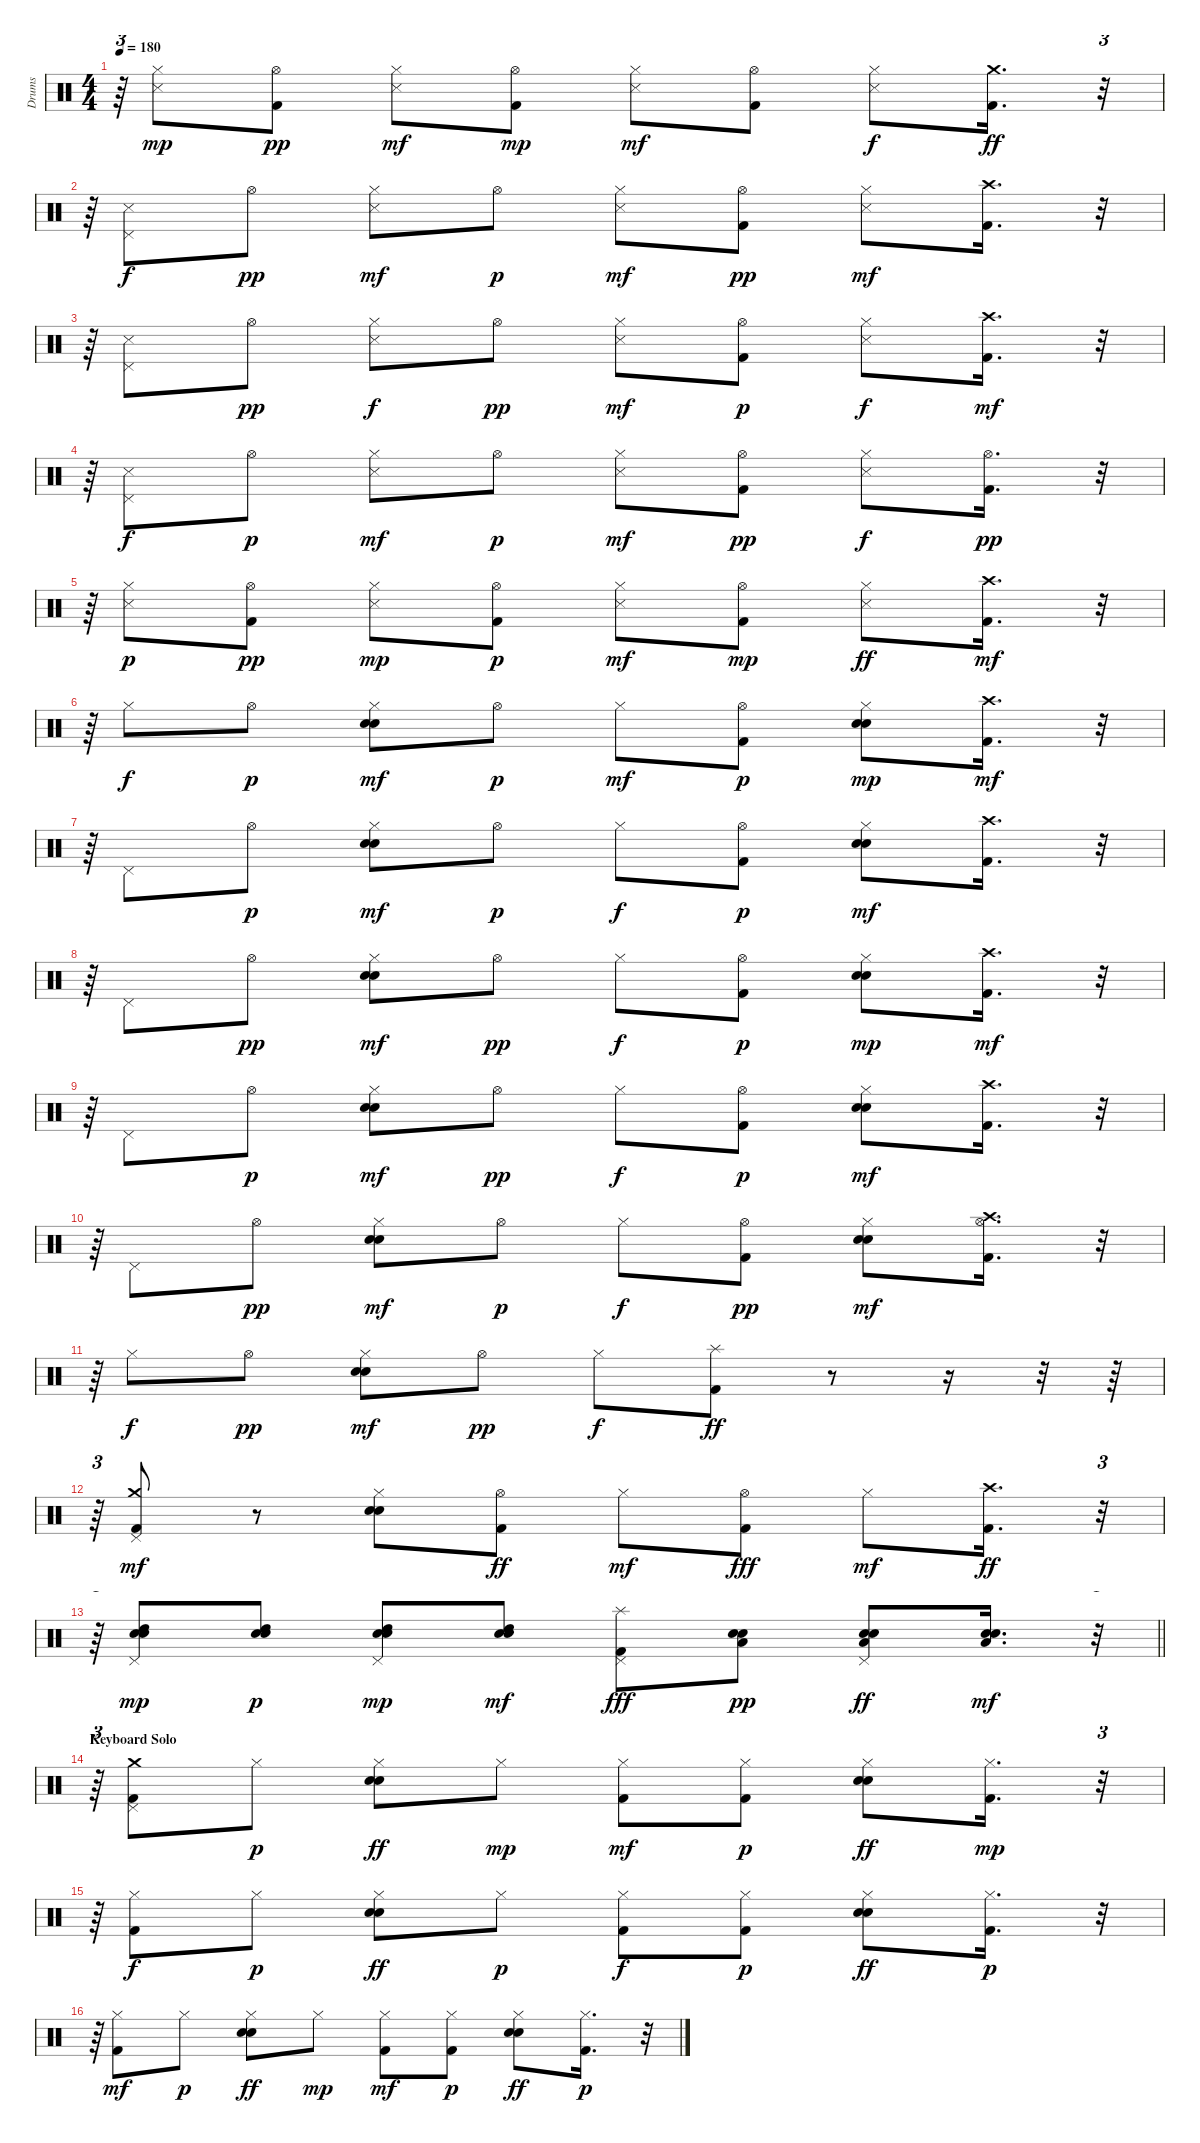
\track ("Drums" "Drums") {instrument percussion}
\staff {score}
\articulation defaults
\ts (4 4)
\tempo 180
\clef neutral
\ks c
r.64{tu (3 2) dy pp} ("Hi-Hat (closed)" "Snare (side stick) 3").8{dy mp} ("Kick (hit) 2" "Hi-Hat (open)").8{dy pp} ("Hi-Hat (closed)" "Snare (side stick) 3").8{dy mf} ("Kick (hit) 2" "Hi-Hat (open)").8{dy mp} ("Hi-Hat (closed)" "Snare (side stick) 3").8{dy mf} ("Kick (hit) 2" "Hi-Hat (open)").8 ("Hi-Hat (closed)" "Snare (side stick) 3").8{dy f} ("Kick (hit) 2" "Crash medium (hit)").16{d dy ff} r.32{tu (3 2)} |
r.64{tu (3 2)} ("Pedal Hi-Hat (hit)" "Snare (side stick) 3").8{dy f} "Hi-Hat (open)".8{dy pp} ("Hi-Hat (closed)" "Snare (side stick) 3").8{dy mf} "Hi-Hat (open)".8{dy p} ("Hi-Hat (closed)" "Snare (side stick) 3").8{dy mf} ("Kick (hit) 2" "Hi-Hat (open)").8{dy pp} ("Hi-Hat (closed)" "Snare (side stick) 3").8{dy mf} ("Kick (hit) 2" "Crash high (hit)").16{d} r.32{tu (3 2)} |
r.64{tu (3 2)} ("Pedal Hi-Hat (hit)" "Snare (side stick) 3").8 "Hi-Hat (open)".8{dy pp} ("Hi-Hat (closed)" "Snare (side stick) 3").8{dy f} "Hi-Hat (open)".8{dy pp} ("Hi-Hat (closed)" "Snare (side stick) 3").8{dy mf} ("Kick (hit) 2" "Hi-Hat (open)").8{dy p} ("Hi-Hat (closed)" "Snare (side stick) 3").8{dy f} ("Kick (hit) 2" "Crash high (hit)").16{d dy mf} r.32{tu (3 2)} |
r.64{tu (3 2)} ("Snare (side stick) 3" "Pedal Hi-Hat (hit)").8{dy f} "Hi-Hat (open)".8{dy p} ("Snare (side stick) 3" "Hi-Hat (closed)").8{dy mf} "Hi-Hat (open)".8{dy p} ("Snare (side stick) 3" "Hi-Hat (closed)").8{dy mf} ("Kick (hit) 2" "Hi-Hat (open)").8{dy pp} ("Snare (side stick) 3" "Hi-Hat (closed)").8{dy f} ("Kick (hit) 2" "Hi-Hat (open)").16{d dy pp} r.32{tu (3 2)} |
r.64{tu (3 2)} ("Snare (side stick) 3" "Hi-Hat (closed)").8{dy p} ("Kick (hit) 2" "Hi-Hat (open)").8{dy pp} ("Snare (side stick) 3" "Hi-Hat (closed)").8{dy mp} ("Kick (hit) 2" "Hi-Hat (open)").8{dy p} ("Snare (side stick) 3" "Hi-Hat (closed)").8{dy mf} ("Kick (hit) 2" "Hi-Hat (open)").8{dy mp} ("Snare (side stick) 3" "Hi-Hat (closed)").8{dy ff} ("Kick (hit) 2" "Crash high (hit)").16{d dy mf} r.32{tu (3 2)} |
r.64{tu (3 2)} "Hi-Hat (closed)".8{dy f} "Hi-Hat (open)".8{dy p} ("Electric Snare (hit)" "Snare (hit) 2" "Hi-Hat (closed)").8{dy mf} "Hi-Hat (open)".8{dy p} "Hi-Hat (closed)".8{dy mf} ("Kick (hit) 2" "Hi-Hat (open)").8{dy p} ("Electric Snare (hit)" "Snare (hit) 2" "Hi-Hat (closed)").8{dy mp} ("Kick (hit) 2" "Crash high (hit)").16{d dy mf} r.32{tu (3 2)} |
r.64{tu (3 2)} "Pedal Hi-Hat (hit)".8 "Hi-Hat (open)".8{dy p} ("Electric Snare (hit)" "Snare (hit) 2" "Hi-Hat (closed)").8{dy mf} "Hi-Hat (open)".8{dy p} "Hi-Hat (closed)".8{dy f} ("Kick (hit) 2" "Hi-Hat (open)").8{dy p} ("Electric Snare (hit)" "Snare (hit) 2" "Hi-Hat (closed)").8{dy mf} ("Kick (hit) 2" "Crash high (hit)").16{d} r.32{tu (3 2)} |
r.64{tu (3 2)} "Pedal Hi-Hat (hit)".8 "Hi-Hat (open)".8{dy pp} ("Electric Snare (hit)" "Snare (hit) 2" "Hi-Hat (closed)").8{dy mf} "Hi-Hat (open)".8{dy pp} "Hi-Hat (closed)".8{dy f} ("Kick (hit) 2" "Hi-Hat (open)").8{dy p} ("Electric Snare (hit)" "Snare (hit) 2" "Hi-Hat (closed)").8{dy mp} ("Kick (hit) 2" "Crash high (hit)").16{d dy mf} r.32{tu (3 2)} |
r.64{tu (3 2)} "Pedal Hi-Hat (hit)".8 "Hi-Hat (open)".8{dy p} ("Electric Snare (hit)" "Snare (hit) 2" "Hi-Hat (closed)").8{dy mf} "Hi-Hat (open)".8{dy pp} "Hi-Hat (closed)".8{dy f} ("Kick (hit) 2" "Hi-Hat (open)").8{dy p} ("Electric Snare (hit)" "Snare (hit) 2" "Hi-Hat (closed)").8{dy mf} ("Kick (hit) 2" "Crash high (hit)").16{d} r.32{tu (3 2)} |
r.64{tu (3 2)} "Pedal Hi-Hat (hit)".8 "Hi-Hat (open)".8{dy pp} ("Electric Snare (hit)" "Snare (hit) 2" "Hi-Hat (closed)").8{dy mf} "Hi-Hat (open)".8{dy p} "Hi-Hat (closed)".8{dy f} ("Kick (hit) 2" "Hi-Hat (open)").8{dy pp} ("Electric Snare (hit)" "Snare (hit) 2" "Hi-Hat (closed)").8{dy mf} ("Kick (hit) 2" "Hi-Hat (open)" "Crash high (hit)").16{d} r.32{tu (3 2)} |
r.64{tu (3 2)} "Hi-Hat (closed)".8{dy f} "Hi-Hat (open)".8{dy pp} ("Electric Snare (hit)" "Snare (hit) 2" "Hi-Hat (closed)").8{dy mf} "Hi-Hat (open)".8{dy pp} "Hi-Hat (closed)".8{dy f} ("Kick (hit) 2" "Splash (hit)").8{dy ff} r.8 r.16 r.32 r.64 |
r.64{tu (3 2)} ("Kick (hit) 2" "Pedal Hi-Hat (hit)" "Crash medium (hit)").8{dy mf} r.8 ("Electric Snare (hit)" "Snare (hit) 2" "Hi-Hat (closed)").8 ("Kick (hit) 2" "Hi-Hat (open)").8{dy ff} "Hi-Hat (closed)".8{dy mf} ("Kick (hit) 2" "Hi-Hat (open)").8{dy fff} "Hi-Hat (closed)".8{dy mf} ("Kick (hit) 2" "Crash high (hit)").16{d dy ff} r.32{tu (3 2)} |
\barLineRight lightlight
r.64{tu (3 2)} ("Electric Snare (hit)" "Snare (hit) 2" "High Tom (hit)" "Pedal Hi-Hat (hit)").8{dy mp} ("Electric Snare (hit)" "Snare (hit) 2" "High Tom (hit)").8{dy p} ("Electric Snare (hit)" "Snare (hit) 2" "High Tom (hit)" "Pedal Hi-Hat (hit)").8{dy mp} ("Electric Snare (hit)" "Snare (hit) 2" "High Tom (hit)").8{dy mf} ("Kick (hit) 2" "Pedal Hi-Hat (hit)" "Splash (hit)").8{dy fff} ("Electric Snare (hit)" "Snare (hit) 2" "Low Tom (hit)").8{dy pp} ("Electric Snare (hit)" "Snare (hit) 2" "Low Tom (hit)" "Pedal Hi-Hat (hit)").8{dy ff} ("Electric Snare (hit)" "Snare (hit) 2" "Low Tom (hit)").16{d dy mf} r.32{tu (3 2)} |
\section ("" "Keyboard Solo")
r.64{tu (3 2)} ("Kick (hit) 2" "Pedal Hi-Hat (hit)" "Crash medium (hit)").8 "Hi-Hat (closed)".8{dy p} ("Electric Snare (hit)" "Snare (hit) 2" "Hi-Hat (closed)").8{dy ff} "Hi-Hat (closed)".8{dy mp} ("Kick (hit) 2" "Hi-Hat (closed)").8{dy mf} ("Kick (hit) 2" "Hi-Hat (closed)").8{dy p} ("Electric Snare (hit)" "Snare (hit) 2" "Hi-Hat (closed)").8{dy ff} ("Kick (hit) 2" "Hi-Hat (closed)").16{d dy mp} r.32{tu (3 2)} |
r.64{tu (3 2)} ("Kick (hit) 2" "Hi-Hat (closed)").8{dy f} "Hi-Hat (closed)".8{dy p} ("Electric Snare (hit)" "Snare (hit) 2" "Hi-Hat (closed)").8{dy ff} "Hi-Hat (closed)".8{dy p} ("Kick (hit) 2" "Hi-Hat (closed)").8{dy f} ("Kick (hit) 2" "Hi-Hat (closed)").8{dy p} ("Electric Snare (hit)" "Snare (hit) 2" "Hi-Hat (closed)").8{dy ff} ("Kick (hit) 2" "Hi-Hat (closed)").16{d dy p} r.32{tu (3 2)} |
r.64{tu (3 2)} ("Kick (hit) 2" "Hi-Hat (closed)").8{dy mf} "Hi-Hat (closed)".8{dy p} ("Electric Snare (hit)" "Snare (hit) 2" "Hi-Hat (closed)").8{dy ff} "Hi-Hat (closed)".8{dy mp} ("Kick (hit) 2" "Hi-Hat (closed)").8{dy mf} ("Kick (hit) 2" "Hi-Hat (closed)").8{dy p} ("Electric Snare (hit)" "Snare (hit) 2" "Hi-Hat (closed)").8{dy ff} ("Kick (hit) 2" "Hi-Hat (closed)").16{d dy p} r.32{tu (3 2)}
